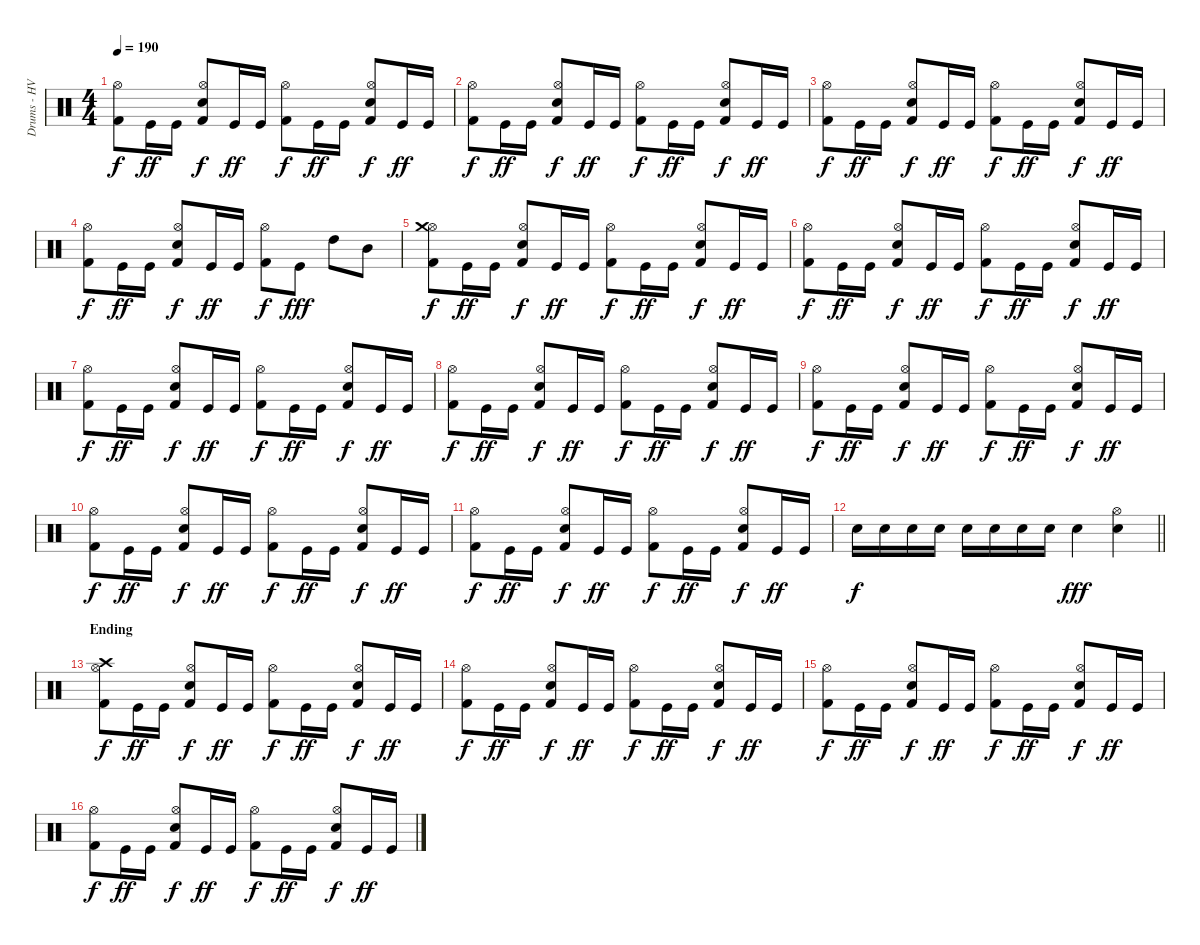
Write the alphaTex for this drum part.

\track ("Drums - HV NikiTon" "Drums - HV") {instrument percussion}
\staff {score}
\articulation defaults
\ts (4 4)
\tempo 190
\clef neutral
\ks c
("Kick (hit) 2" "Hi-Hat (open)").8{dy f} "Kick (hit)".16{dy ff} "Kick (hit)".16 ("Electric Snare (hit)" "Kick (hit) 2" "Hi-Hat (open)").8{dy f} "Kick (hit)".16{dy ff} "Kick (hit)".16 ("Kick (hit) 2" "Hi-Hat (open)").8{dy f} "Kick (hit)".16{dy ff} "Kick (hit)".16 ("Electric Snare (hit)" "Kick (hit) 2" "Hi-Hat (open)").8{dy f} "Kick (hit)".16{dy ff} "Kick (hit)".16 |
("Kick (hit) 2" "Hi-Hat (open)").8{dy f} "Kick (hit)".16{dy ff} "Kick (hit)".16 ("Electric Snare (hit)" "Kick (hit) 2" "Hi-Hat (open)").8{dy f} "Kick (hit)".16{dy ff} "Kick (hit)".16 ("Kick (hit) 2" "Hi-Hat (open)").8{dy f} "Kick (hit)".16{dy ff} "Kick (hit)".16 ("Electric Snare (hit)" "Kick (hit) 2" "Hi-Hat (open)").8{dy f} "Kick (hit)".16{dy ff} "Kick (hit)".16 |
("Kick (hit) 2" "Hi-Hat (open)").8{dy f} "Kick (hit)".16{dy ff} "Kick (hit)".16 ("Electric Snare (hit)" "Kick (hit) 2" "Hi-Hat (open)").8{dy f} "Kick (hit)".16{dy ff} "Kick (hit)".16 ("Kick (hit) 2" "Hi-Hat (open)").8{dy f} "Kick (hit)".16{dy ff} "Kick (hit)".16 ("Electric Snare (hit)" "Kick (hit) 2" "Hi-Hat (open)").8{dy f} "Kick (hit)".16{dy ff} "Kick (hit)".16 |
("Kick (hit) 2" "Hi-Hat (open)").8{dy f} "Kick (hit)".16{dy ff} "Kick (hit)".16 ("Electric Snare (hit)" "Kick (hit) 2" "Hi-Hat (open)").8{dy f} "Kick (hit)".16{dy ff} "Kick (hit)".16 ("Kick (hit) 2" "Hi-Hat (open)").8{dy f} "Kick (hit)".8{dy fff} "High Tom (hit)".8 "Mid Tom (hit)".8 |
("Kick (hit) 2" "Hi-Hat (open)" "Crash medium (hit)").8{dy f} "Kick (hit)".16{dy ff} "Kick (hit)".16 ("Electric Snare (hit)" "Kick (hit) 2" "Hi-Hat (open)").8{dy f} "Kick (hit)".16{dy ff} "Kick (hit)".16 ("Kick (hit) 2" "Hi-Hat (open)").8{dy f} "Kick (hit)".16{dy ff} "Kick (hit)".16 ("Electric Snare (hit)" "Kick (hit) 2" "Hi-Hat (open)").8{dy f} "Kick (hit)".16{dy ff} "Kick (hit)".16 |
("Kick (hit) 2" "Hi-Hat (open)").8{dy f} "Kick (hit)".16{dy ff} "Kick (hit)".16 ("Electric Snare (hit)" "Kick (hit) 2" "Hi-Hat (open)").8{dy f} "Kick (hit)".16{dy ff} "Kick (hit)".16 ("Kick (hit) 2" "Hi-Hat (open)").8{dy f} "Kick (hit)".16{dy ff} "Kick (hit)".16 ("Electric Snare (hit)" "Kick (hit) 2" "Hi-Hat (open)").8{dy f} "Kick (hit)".16{dy ff} "Kick (hit)".16 |
("Kick (hit) 2" "Hi-Hat (open)").8{dy f} "Kick (hit)".16{dy ff} "Kick (hit)".16 ("Electric Snare (hit)" "Kick (hit) 2" "Hi-Hat (open)").8{dy f} "Kick (hit)".16{dy ff} "Kick (hit)".16 ("Kick (hit) 2" "Hi-Hat (open)").8{dy f} "Kick (hit)".16{dy ff} "Kick (hit)".16 ("Electric Snare (hit)" "Kick (hit) 2" "Hi-Hat (open)").8{dy f} "Kick (hit)".16{dy ff} "Kick (hit)".16 |
("Kick (hit) 2" "Hi-Hat (open)").8{dy f} "Kick (hit)".16{dy ff} "Kick (hit)".16 ("Electric Snare (hit)" "Kick (hit) 2" "Hi-Hat (open)").8{dy f} "Kick (hit)".16{dy ff} "Kick (hit)".16 ("Kick (hit) 2" "Hi-Hat (open)").8{dy f} "Kick (hit)".16{dy ff} "Kick (hit)".16 ("Electric Snare (hit)" "Kick (hit) 2" "Hi-Hat (open)").8{dy f} "Kick (hit)".16{dy ff} "Kick (hit)".16 |
("Kick (hit) 2" "Hi-Hat (open)").8{dy f} "Kick (hit)".16{dy ff} "Kick (hit)".16 ("Electric Snare (hit)" "Kick (hit) 2" "Hi-Hat (open)").8{dy f} "Kick (hit)".16{dy ff} "Kick (hit)".16 ("Kick (hit) 2" "Hi-Hat (open)").8{dy f} "Kick (hit)".16{dy ff} "Kick (hit)".16 ("Electric Snare (hit)" "Kick (hit) 2" "Hi-Hat (open)").8{dy f} "Kick (hit)".16{dy ff} "Kick (hit)".16 |
("Kick (hit) 2" "Hi-Hat (open)").8{dy f} "Kick (hit)".16{dy ff} "Kick (hit)".16 ("Electric Snare (hit)" "Kick (hit) 2" "Hi-Hat (open)").8{dy f} "Kick (hit)".16{dy ff} "Kick (hit)".16 ("Kick (hit) 2" "Hi-Hat (open)").8{dy f} "Kick (hit)".16{dy ff} "Kick (hit)".16 ("Electric Snare (hit)" "Kick (hit) 2" "Hi-Hat (open)").8{dy f} "Kick (hit)".16{dy ff} "Kick (hit)".16 |
("Kick (hit) 2" "Hi-Hat (open)").8{dy f} "Kick (hit)".16{dy ff} "Kick (hit)".16 ("Electric Snare (hit)" "Kick (hit) 2" "Hi-Hat (open)").8{dy f} "Kick (hit)".16{dy ff} "Kick (hit)".16 ("Kick (hit) 2" "Hi-Hat (open)").8{dy f} "Kick (hit)".16{dy ff} "Kick (hit)".16 ("Electric Snare (hit)" "Kick (hit) 2" "Hi-Hat (open)").8{dy f} "Kick (hit)".16{dy ff} "Kick (hit)".16 |
\barLineRight lightlight "Electric Snare (hit)".16{dy f} "Electric Snare (hit)".16 "Electric Snare (hit)".16 "Electric Snare (hit)".16 "Electric Snare (hit)".16 "Electric Snare (hit)".16 "Electric Snare (hit)".16 "Electric Snare (hit)".16 "Electric Snare (hit)".4{dy fff}
("Hi-Hat (open)" "Snare (hit) 2").4 |
\section ("" "Ending")
("Kick (hit) 2" "Hi-Hat (open)" "Crash high (hit)").8{dy f} "Kick (hit)".16{dy ff} "Kick (hit)".16 ("Electric Snare (hit)" "Kick (hit) 2" "Hi-Hat (open)").8{dy f} "Kick (hit)".16{dy ff} "Kick (hit)".16 ("Kick (hit) 2" "Hi-Hat (open)").8{dy f} "Kick (hit)".16{dy ff} "Kick (hit)".16 ("Electric Snare (hit)" "Kick (hit) 2" "Hi-Hat (open)").8{dy f} "Kick (hit)".16{dy ff} "Kick (hit)".16 |
("Kick (hit) 2" "Hi-Hat (open)").8{dy f} "Kick (hit)".16{dy ff} "Kick (hit)".16 ("Electric Snare (hit)" "Kick (hit) 2" "Hi-Hat (open)").8{dy f} "Kick (hit)".16{dy ff} "Kick (hit)".16 ("Kick (hit) 2" "Hi-Hat (open)").8{dy f} "Kick (hit)".16{dy ff} "Kick (hit)".16 ("Electric Snare (hit)" "Kick (hit) 2" "Hi-Hat (open)").8{dy f} "Kick (hit)".16{dy ff} "Kick (hit)".16 |
("Kick (hit) 2" "Hi-Hat (open)").8{dy f} "Kick (hit)".16{dy ff} "Kick (hit)".16 ("Electric Snare (hit)" "Kick (hit) 2" "Hi-Hat (open)").8{dy f} "Kick (hit)".16{dy ff} "Kick (hit)".16 ("Kick (hit) 2" "Hi-Hat (open)").8{dy f} "Kick (hit)".16{dy ff} "Kick (hit)".16 ("Electric Snare (hit)" "Kick (hit) 2" "Hi-Hat (open)").8{dy f} "Kick (hit)".16{dy ff} "Kick (hit)".16 |
("Kick (hit) 2" "Hi-Hat (open)").8{dy f} "Kick (hit)".16{dy ff} "Kick (hit)".16 ("Electric Snare (hit)" "Kick (hit) 2" "Hi-Hat (open)").8{dy f} "Kick (hit)".16{dy ff} "Kick (hit)".16 ("Kick (hit) 2" "Hi-Hat (open)").8{dy f} "Kick (hit)".16{dy ff} "Kick (hit)".16 ("Electric Snare (hit)" "Kick (hit) 2" "Hi-Hat (open)").8{dy f} "Kick (hit)".16{dy ff} "Kick (hit)".16
